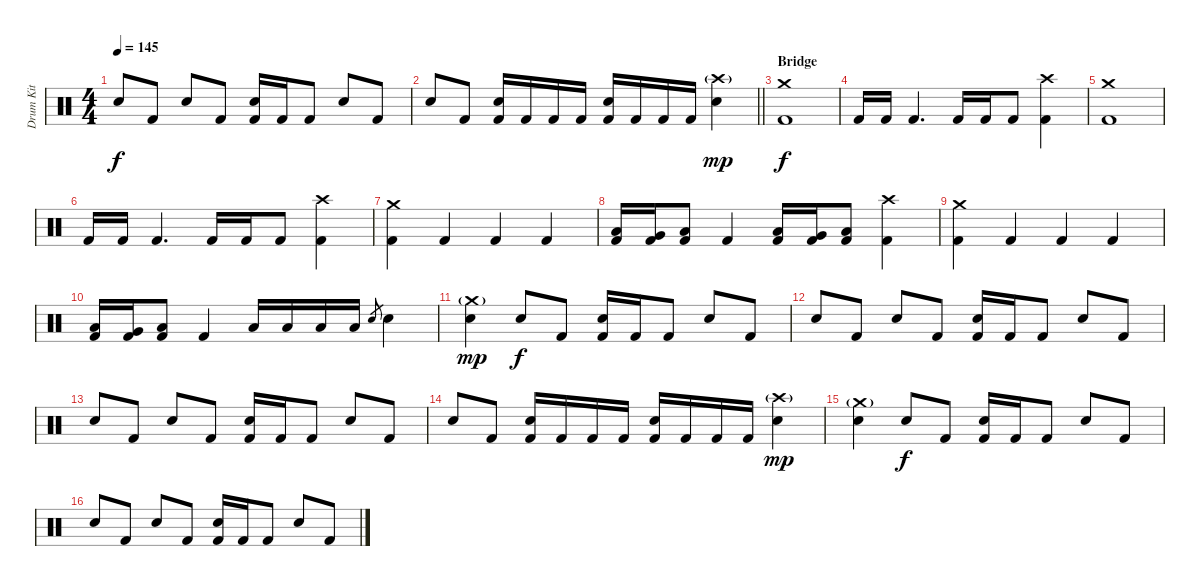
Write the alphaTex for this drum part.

\track ("Drum Kit" "Drum Kit") {instrument percussion}
\staff {score}
\articulation defaults
\ts (4 4)
\tempo 145
\clef neutral
\ks c "Electric Snare (hit)".8{dy f} "Kick (hit) 2".8 "Electric Snare (hit)".8 "Kick (hit) 2".8
("Electric Snare (hit)" "Kick (hit) 2").16 "Kick (hit) 2".16 "Kick (hit) 2".8 "Electric Snare (hit)".8 "Kick (hit) 2".8 |
\barLineRight lightlight "Electric Snare (hit)".8 "Kick (hit) 2".8
("Electric Snare (hit)" "Kick (hit) 2").16 "Kick (hit) 2".16 "Kick (hit) 2".16 "Kick (hit) 2".16 ("Electric Snare (hit)" "Kick (hit) 2").16 "Kick (hit) 2".16 "Kick (hit) 2".16 "Kick (hit) 2".16 ("Crash high (hit)"{g} "Electric Snare (hit)").4{dy mp} |
\section ("" "Bridge")
("Crash medium (hit)" "Kick (hit) 2").1{dy f} |
"Kick (hit) 2".16 "Kick (hit) 2".16 "Kick (hit) 2".4{d} "Kick (hit) 2".16 "Kick (hit) 2".16 "Kick (hit) 2".8 ("Crash high (hit)" "Kick (hit) 2").4 |
("Crash medium (hit)" "Kick (hit) 2").1 |
"Kick (hit) 2".16 "Kick (hit) 2".16 "Kick (hit) 2".4{d} "Kick (hit) 2".16 "Kick (hit) 2".16 "Kick (hit) 2".8 ("Crash high (hit)" "Kick (hit) 2").4 |
("Crash medium (hit)" "Kick (hit) 2").4 "Kick (hit) 2".4 "Kick (hit) 2".4 "Kick (hit) 2".4 |
("Low Floor Tom (hit)" "Kick (hit) 2").16 ("Very Low Tom (hit)" "Kick (hit) 2").16 ("Low Floor Tom (hit)" "Kick (hit) 2").8 "Kick (hit) 2".4 ("Low Floor Tom (hit)" "Kick (hit) 2").16 ("Very Low Tom (hit)" "Kick (hit) 2").16 ("Low Floor Tom (hit)" "Kick (hit) 2").8 ("Crash high (hit)" "Kick (hit) 2").4 |
("Crash medium (hit)" "Kick (hit) 2").4 "Kick (hit) 2".4 "Kick (hit) 2".4 "Kick (hit) 2".4 |
("Low Floor Tom (hit)" "Kick (hit) 2").16 ("Very Low Tom (hit)" "Kick (hit) 2").16 ("Low Floor Tom (hit)" "Kick (hit) 2").8 "Kick (hit) 2".4 "Low Tom (hit)".16 "Low Tom (hit)".16 "Low Floor Tom (hit)".16 "Low Floor Tom (hit)".16 "Electric Snare (hit)".8{gr} "Electric Snare (hit)".4 |
("Crash medium (hit)"{g} "Electric Snare (hit)").4{dy mp} "Electric Snare (hit)".8{dy f} "Kick (hit) 2".8 ("Electric Snare (hit)" "Kick (hit) 2").16 "Kick (hit) 2".16 "Kick (hit) 2".8 "Electric Snare (hit)".8 "Kick (hit) 2".8 |
"Electric Snare (hit)".8 "Kick (hit) 2".8 "Electric Snare (hit)".8 "Kick (hit) 2".8 ("Electric Snare (hit)" "Kick (hit) 2").16 "Kick (hit) 2".16 "Kick (hit) 2".8 "Electric Snare (hit)".8 "Kick (hit) 2".8 |
"Electric Snare (hit)".8 "Kick (hit) 2".8 "Electric Snare (hit)".8 "Kick (hit) 2".8 ("Electric Snare (hit)" "Kick (hit) 2").16 "Kick (hit) 2".16 "Kick (hit) 2".8 "Electric Snare (hit)".8 "Kick (hit) 2".8 |
"Electric Snare (hit)".8 "Kick (hit) 2".8 ("Electric Snare (hit)" "Kick (hit) 2").16 "Kick (hit) 2".16 "Kick (hit) 2".16 "Kick (hit) 2".16 ("Electric Snare (hit)" "Kick (hit) 2").16 "Kick (hit) 2".16 "Kick (hit) 2".16 "Kick (hit) 2".16 ("Crash high (hit)"{g} "Electric Snare (hit)").4{dy mp} |
("Crash medium (hit)"{g} "Electric Snare (hit)").4 "Electric Snare (hit)".8{dy f} "Kick (hit) 2".8 ("Electric Snare (hit)" "Kick (hit) 2").16 "Kick (hit) 2".16 "Kick (hit) 2".8 "Electric Snare (hit)".8 "Kick (hit) 2".8 |
"Electric Snare (hit)".8 "Kick (hit) 2".8 "Electric Snare (hit)".8 "Kick (hit) 2".8 ("Electric Snare (hit)" "Kick (hit) 2").16 "Kick (hit) 2".16 "Kick (hit) 2".8 "Electric Snare (hit)".8 "Kick (hit) 2".8
